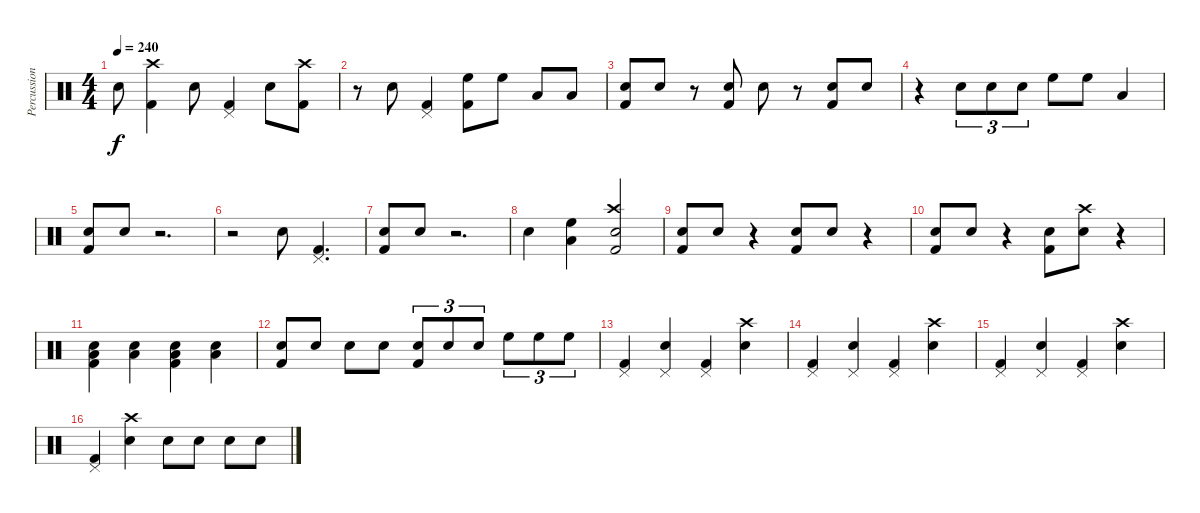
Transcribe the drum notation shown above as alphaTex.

\track ("Percussion" "Percussion") {instrument percussion}
\staff {score}
\articulation defaults
\ts (4 4)
\tempo 240
\clef neutral
\ks c "Electric Snare (hit)".8{dy f}
("Crash high (hit)" "Kick (hit) 2").4 "Electric Snare (hit)".8 ("Pedal Hi-Hat (hit)" "Kick (hit) 2").4 "Electric Snare (hit)".8 ("Crash high (hit)" "Kick (hit) 2").8 |
r.8 "Electric Snare (hit)".8 ("Pedal Hi-Hat (hit)" "Kick (hit) 2").4 ("High Floor Tom (hit)" "Kick (hit) 2").8 "High Floor Tom (hit)".8 "Low Tom (hit)".8 "Low Tom (hit)".8 |
("Electric Snare (hit)" "Kick (hit) 2").8 "Electric Snare (hit)".8 r.8 ("Electric Snare (hit)" "Kick (hit) 2").8 "Electric Snare (hit)".8 r.8 ("Electric Snare (hit)" "Kick (hit) 2").8 "Electric Snare (hit)".8 |
r.4 "Electric Snare (hit)".8{tu (3 2)} "Electric Snare (hit)".8{tu (3 2)} "Electric Snare (hit)".8{tu (3 2)} "High Floor Tom (hit)".8 "High Floor Tom (hit)".8 "Low Tom (hit)".4 |
("Electric Snare (hit)" "Kick (hit) 2").8 "Electric Snare (hit)".8 r.2{d} |
r.2 "Electric Snare (hit)".8 ("Pedal Hi-Hat (hit)" "Kick (hit) 2").4{d} |
("Electric Snare (hit)" "Kick (hit) 2").8 "Electric Snare (hit)".8 r.2{d} |
"Electric Snare (hit)".4 ("High Floor Tom (hit)" "Low Tom (hit)").4 ("Crash high (hit)" "Electric Snare (hit)" "Kick (hit) 2").2 |
("Electric Snare (hit)" "Kick (hit) 2").8 "Electric Snare (hit)".8 r.4 ("Electric Snare (hit)" "Kick (hit) 2").8 "Electric Snare (hit)".8 r.4 |
("Electric Snare (hit)" "Kick (hit) 2").8 "Electric Snare (hit)".8 r.4 ("Electric Snare (hit)" "Kick (hit) 2").8 ("Crash high (hit)" "Electric Snare (hit)").8 r.4 |
("Low Tom (hit)" "Electric Snare (hit)" "Kick (hit) 2").4 ("Low Tom (hit)" "Electric Snare (hit)").4 ("Low Tom (hit)" "Electric Snare (hit)" "Kick (hit) 2").4 ("Low Tom (hit)" "Electric Snare (hit)").4 |
("Electric Snare (hit)" "Kick (hit) 2").8 "Electric Snare (hit)".8 "Electric Snare (hit)".8 "Electric Snare (hit)".8 ("Electric Snare (hit)" "Kick (hit) 2").8{tu (3 2)} "Electric Snare (hit)".8{tu (3 2)} "Electric Snare (hit)".8{tu (3 2)} "High Floor Tom (hit)".8{tu (3 2)} "High Floor Tom (hit)".8{tu (3 2)} "High Floor Tom (hit)".8{tu (3 2)} |
("Pedal Hi-Hat (hit)" "Kick (hit) 2").4 ("Pedal Hi-Hat (hit)" "Electric Snare (hit)").4 ("Pedal Hi-Hat (hit)" "Kick (hit) 2").4 ("Crash high (hit)" "Electric Snare (hit)").4 |
("Pedal Hi-Hat (hit)" "Kick (hit) 2").4 ("Pedal Hi-Hat (hit)" "Electric Snare (hit)").4 ("Pedal Hi-Hat (hit)" "Kick (hit) 2").4 ("Crash high (hit)" "Electric Snare (hit)").4 |
("Pedal Hi-Hat (hit)" "Kick (hit) 2").4 ("Pedal Hi-Hat (hit)" "Electric Snare (hit)").4 ("Pedal Hi-Hat (hit)" "Kick (hit) 2").4 ("Crash high (hit)" "Electric Snare (hit)").4 |
("Pedal Hi-Hat (hit)" "Kick (hit) 2").4 ("Crash high (hit)" "Electric Snare (hit)").4 "Electric Snare (hit)".8 "Electric Snare (hit)".8 "Electric Snare (hit)".8 "Electric Snare (hit)".8
